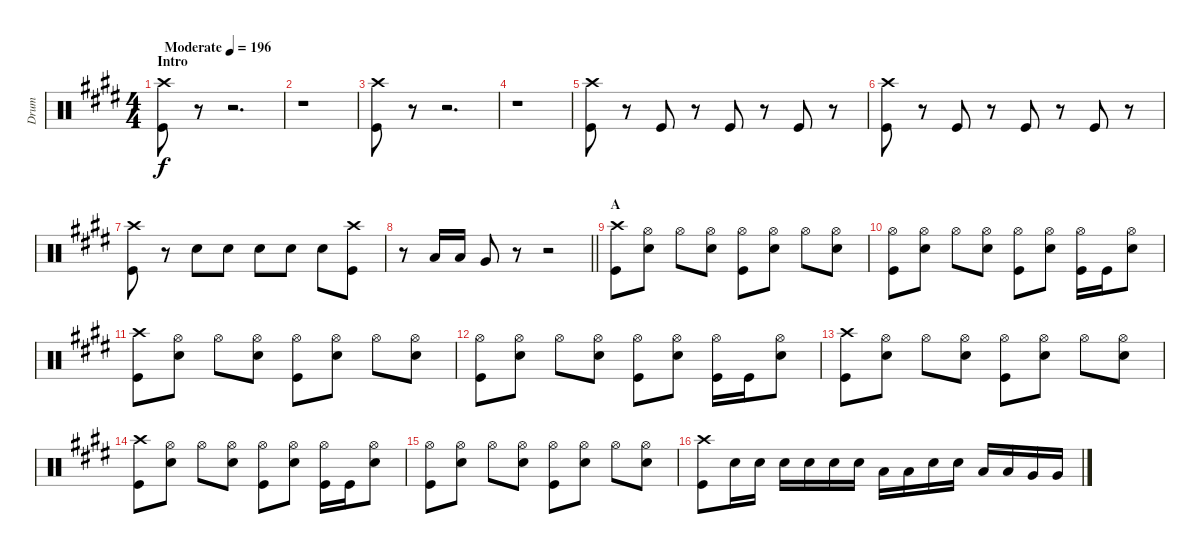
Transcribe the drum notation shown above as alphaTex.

\track ("Drum" "Drum") {instrument percussion}
\staff {score}
\articulation defaults
\ts (4 4)
\section ("" "Intro")
\tempo (196 "Moderate")
\clef neutral
\ks e
("Crash high (hit)" "Kick (hit)").8{dy f} r.8 r.2{d} |
r.1 |
("Crash high (hit)" "Kick (hit)").8 r.8 r.2{d} |
r.1 |
("Crash high (hit)" "Kick (hit)").8 r.8 "Kick (hit)".8 r.8 "Kick (hit)".8 r.8 "Kick (hit)".8 r.8 |
("Crash high (hit)" "Kick (hit)").8 r.8 "Kick (hit)".8 r.8 "Kick (hit)".8 r.8 "Kick (hit)".8 r.8 |
("Crash high (hit)" "Kick (hit)").8 r.8 "Snare (hit) 2".8 "Snare (hit) 2".8 "Snare (hit) 2".8 "Snare (hit) 2".8 "Snare (hit) 2".8 ("Crash high (hit)" "Kick (hit)").8 |
\barLineRight lightlight
r.8 "Low Tom (hit)".16 "Low Tom (hit)".16 "Very Low Tom (hit)".8 r.8 r.2 |
\section ("" "A")
("Crash high (hit)" "Kick (hit)").8 ("Hi-Hat (open)" "Snare (hit) 2").8 "Hi-Hat (open)".8 ("Hi-Hat (open)" "Snare (hit) 2").8 ("Hi-Hat (open)" "Kick (hit)").8 ("Hi-Hat (open)" "Snare (hit) 2").8 "Hi-Hat (open)".8 ("Hi-Hat (open)" "Snare (hit) 2").8 |
("Hi-Hat (open)" "Kick (hit)").8 ("Hi-Hat (open)" "Snare (hit) 2").8 "Hi-Hat (open)".8 ("Hi-Hat (open)" "Snare (hit) 2").8 ("Hi-Hat (open)" "Kick (hit)").8 ("Hi-Hat (open)" "Snare (hit) 2").8 ("Hi-Hat (open)" "Kick (hit)").16 "Kick (hit)".16 ("Hi-Hat (open)" "Snare (hit) 2").8 |
("Crash high (hit)" "Kick (hit)").8 ("Hi-Hat (open)" "Snare (hit) 2").8 "Hi-Hat (open)".8 ("Hi-Hat (open)" "Snare (hit) 2").8 ("Hi-Hat (open)" "Kick (hit)").8 ("Hi-Hat (open)" "Snare (hit) 2").8 "Hi-Hat (open)".8 ("Hi-Hat (open)" "Snare (hit) 2").8 |
("Hi-Hat (open)" "Kick (hit)").8 ("Hi-Hat (open)" "Snare (hit) 2").8 "Hi-Hat (open)".8 ("Hi-Hat (open)" "Snare (hit) 2").8 ("Hi-Hat (open)" "Kick (hit)").8 ("Hi-Hat (open)" "Snare (hit) 2").8 ("Hi-Hat (open)" "Kick (hit)").16 "Kick (hit)".16 ("Hi-Hat (open)" "Snare (hit) 2").8 |
("Crash high (hit)" "Kick (hit)").8 ("Hi-Hat (open)" "Snare (hit) 2").8 "Hi-Hat (open)".8 ("Hi-Hat (open)" "Snare (hit) 2").8 ("Hi-Hat (open)" "Kick (hit)").8 ("Hi-Hat (open)" "Snare (hit) 2").8 "Hi-Hat (open)".8 ("Hi-Hat (open)" "Snare (hit) 2").8 |
("Crash high (hit)" "Kick (hit)").8 ("Hi-Hat (open)" "Snare (hit) 2").8 "Hi-Hat (open)".8 ("Hi-Hat (open)" "Snare (hit) 2").8 ("Hi-Hat (open)" "Kick (hit)").8 ("Hi-Hat (open)" "Snare (hit) 2").8 ("Hi-Hat (open)" "Kick (hit)").16 "Kick (hit)".16 ("Hi-Hat (open)" "Snare (hit) 2").8 |
("Hi-Hat (open)" "Kick (hit)").8 ("Hi-Hat (open)" "Snare (hit) 2").8 "Hi-Hat (open)".8 ("Hi-Hat (open)" "Snare (hit) 2").8 ("Hi-Hat (open)" "Kick (hit)").8 ("Hi-Hat (open)" "Snare (hit) 2").8 "Hi-Hat (open)".8 ("Hi-Hat (open)" "Snare (hit) 2").8 |
("Crash high (hit)" "Kick (hit)").8 "Snare (hit) 2".16 "Snare (hit) 2".16 "Snare (hit) 2".16 "Snare (hit) 2".16 "Snare (hit) 2".16 "Snare (hit) 2".16 "Low Tom (hit)".16 "Low Tom (hit)".16 "Snare (hit) 2".16 "Snare (hit) 2".16 "Low Tom (hit)".16 "Low Tom (hit)".16 "Very Low Tom (hit)".16 "Very Low Tom (hit)".16
